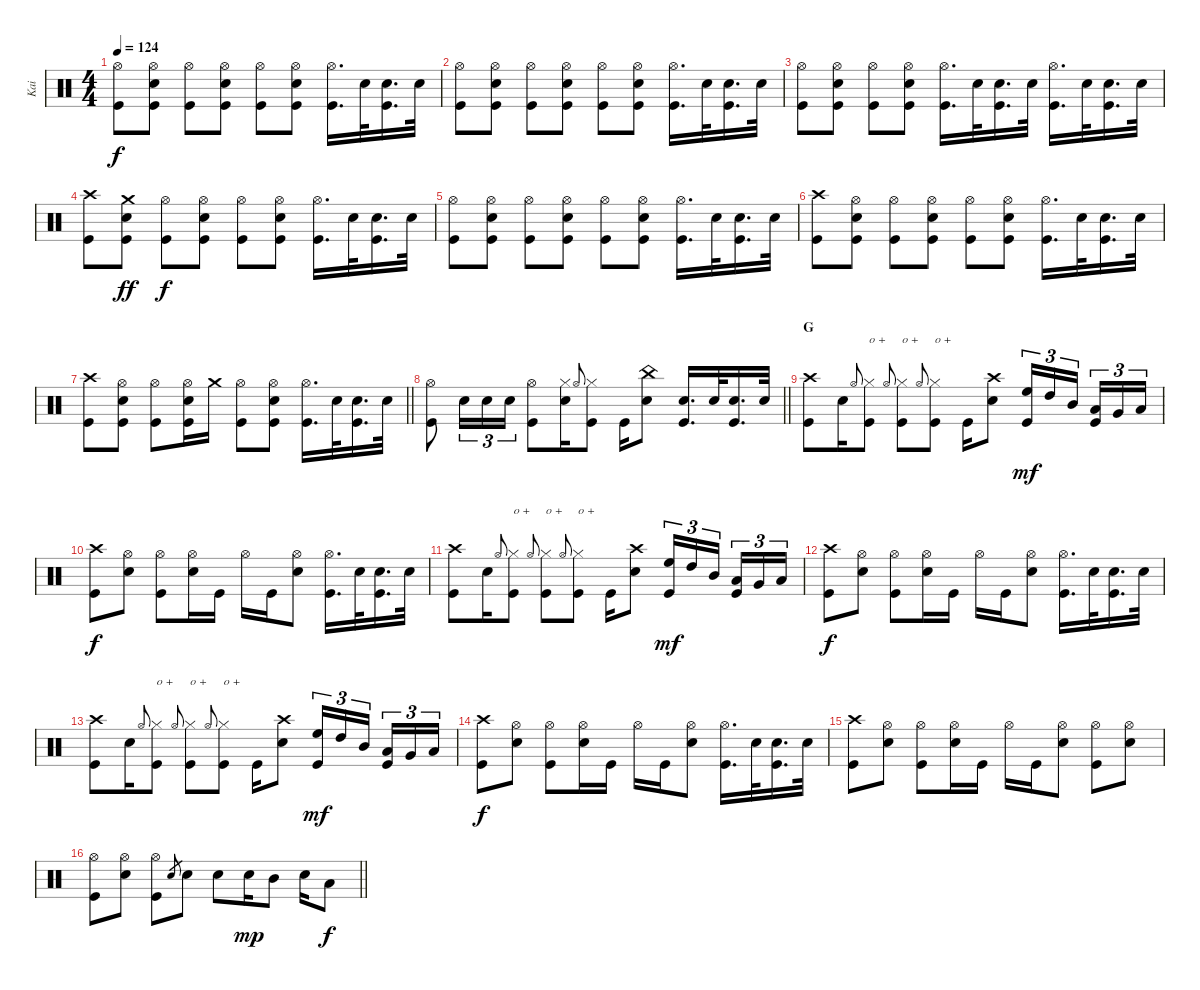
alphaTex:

\track ("Kai" "Kai") {instrument percussion}
\staff {score}
\articulation defaults
\ts (4 4)
\tempo 124
\clef neutral
\ks c
("Hi-Hat (open)" "Kick (hit)").8{dy f} ("Hi-Hat (open)" "Snare (hit) 2" "Kick (hit)").8 ("Hi-Hat (open)" "Kick (hit)").8 ("Hi-Hat (open)" "Snare (hit) 2" "Kick (hit)").8 ("Kick (hit)" "Hi-Hat (open)").8 ("Snare (hit) 2" "Hi-Hat (open)" "Kick (hit)").8 ("Kick (hit)" "Hi-Hat (open)").16{d} "Snare (hit) 2".32 ("Snare (hit) 2" "Kick (hit)").16{d} "Snare (hit) 2".32 |
("Hi-Hat (open)" "Kick (hit)").8 ("Hi-Hat (open)" "Snare (hit) 2" "Kick (hit)").8 ("Hi-Hat (open)" "Kick (hit)").8 ("Hi-Hat (open)" "Snare (hit) 2" "Kick (hit)").8 ("Kick (hit)" "Hi-Hat (open)").8 ("Snare (hit) 2" "Hi-Hat (open)" "Kick (hit)").8 ("Kick (hit)" "Hi-Hat (open)").16{d} "Snare (hit) 2".32 ("Snare (hit) 2" "Kick (hit)").16{d} "Snare (hit) 2".32 |
("Hi-Hat (open)" "Kick (hit)").8 ("Hi-Hat (open)" "Snare (hit) 2" "Kick (hit)").8 ("Hi-Hat (open)" "Kick (hit)").8 ("Hi-Hat (open)" "Snare (hit) 2" "Kick (hit)").8 ("Kick (hit)" "Hi-Hat (open)").16{d} "Snare (hit) 2".32 ("Snare (hit) 2" "Kick (hit)").16{d} "Snare (hit) 2".32 ("Kick (hit)" "Hi-Hat (open)").16{d} "Snare (hit) 2".32 ("Snare (hit) 2" "Kick (hit)").16{d} "Snare (hit) 2".32 |
("Kick (hit)" "Crash high (hit)").8 ("Crash medium (hit)" "Snare (hit) 2" "Kick (hit)").8{dy ff} ("Hi-Hat (open)" "Kick (hit)").8{dy f} ("Hi-Hat (open)" "Snare (hit) 2" "Kick (hit)").8 ("Kick (hit)" "Hi-Hat (open)").8 ("Snare (hit) 2" "Hi-Hat (open)" "Kick (hit)").8 ("Kick (hit)" "Hi-Hat (open)").16{d} "Snare (hit) 2".32 ("Snare (hit) 2" "Kick (hit)").16{d} "Snare (hit) 2".32 |
("Hi-Hat (open)" "Kick (hit)").8 ("Hi-Hat (open)" "Snare (hit) 2" "Kick (hit)").8 ("Hi-Hat (open)" "Kick (hit)").8 ("Hi-Hat (open)" "Snare (hit) 2" "Kick (hit)").8 ("Kick (hit)" "Hi-Hat (open)").8 ("Snare (hit) 2" "Hi-Hat (open)" "Kick (hit)").8 ("Kick (hit)" "Hi-Hat (open)").16{d} "Snare (hit) 2".32 ("Snare (hit) 2" "Kick (hit)").16{d} "Snare (hit) 2".32 |
("Crash high (hit)" "Kick (hit)").8 ("Hi-Hat (open)" "Snare (hit) 2" "Kick (hit)").8 ("Hi-Hat (open)" "Kick (hit)").8 ("Hi-Hat (open)" "Snare (hit) 2" "Kick (hit)").8 ("Kick (hit)" "Hi-Hat (open)").8 ("Snare (hit) 2" "Hi-Hat (open)" "Kick (hit)").8 ("Kick (hit)" "Hi-Hat (open)").16{d} "Snare (hit) 2".32 ("Snare (hit) 2" "Kick (hit)").16{d} "Snare (hit) 2".32 |
\barLineRight lightlight
("Crash high (hit)" "Kick (hit)").8 ("Hi-Hat (open)" "Snare (hit) 2" "Kick (hit)").8 ("Hi-Hat (open)" "Kick (hit)").8 ("Hi-Hat (open)" "Snare (hit) 2" "Kick (hit)").16 "Crash medium (hit)".16 ("Kick (hit)" "Hi-Hat (open)").8 ("Snare (hit) 2" "Hi-Hat (open)" "Kick (hit)").8 ("Kick (hit)" "Hi-Hat (open)").16{d} "Snare (hit) 2".32 ("Snare (hit) 2" "Kick (hit)").16{d} "Snare (hit) 2".32 |
\barLineRight lightlight
("Kick (hit)" "Hi-Hat (open)").8 "Snare (hit) 2".16{tu (3 2)} "Snare (hit) 2".16{tu (3 2)} "Snare (hit) 2".16{tu (3 2)} ("Kick (hit)" "Hi-Hat (open)").8 ("Snare (hit) 2" "Hi-Hat (closed)").16 "Hi-Hat (open)".8{gr onbeat} ("Kick (hit)" "Hi-Hat (closed)").8 "Kick (hit)".16 ("China (hit)" "Snare (hit) 2").8 ("Kick (hit)" "Snare (hit) 2").16{d} "Snare (hit) 2".32 ("Snare (hit) 2" "Kick (hit)").16{d} "Snare (hit) 2".32 |
\section ("" "G")
("Kick (hit)" "Crash high (hit)").8 "Snare (hit) 2".16 "Hi-Hat (open)".8{gr onbeat} ("Hi-Hat (closed)" "Kick (hit)").8{txt "o +"} "Hi-Hat (open)".8{gr onbeat} ("Hi-Hat (closed)" "Kick (hit)").8{txt "o +"} "Hi-Hat (open)".8{gr onbeat} ("Hi-Hat (closed)" "Kick (hit)").8{txt "o +"} "Kick (hit)".16 ("Snare (hit) 2" "Crash high (hit)").8 ("High Floor Tom (hit)" "Kick (hit)").16{tu (3 2) dy mf} "High Tom (hit)".16{tu (3 2)} "Mid Tom (hit)".16{tu (3 2) beam splitsecondary} ("Low Tom (hit)" "Kick (hit)").16{tu (3 2)} "Very Low Tom (hit)".16{tu (3 2)} "Low Floor Tom (hit)".16{tu (3 2)} |
("Kick (hit)" "Crash high (hit)").8{dy f} ("Snare (hit) 2" "Hi-Hat (open)").8 ("Kick (hit)" "Hi-Hat (open)").8 ("Snare (hit) 2" "Hi-Hat (open)").16 "Kick (hit)".16 "Hi-Hat (open)".16 "Kick (hit)".16 ("Snare (hit) 2" "Hi-Hat (open)").8 ("Kick (hit)" "Hi-Hat (open)").16{d} "Snare (hit) 2".32 ("Snare (hit) 2" "Kick (hit)").16{d} "Snare (hit) 2".32 |
("Kick (hit)" "Crash high (hit)").8 "Snare (hit) 2".16 "Hi-Hat (open)".8{gr onbeat} ("Hi-Hat (closed)" "Kick (hit)").8{txt "o +"} "Hi-Hat (open)".8{gr onbeat} ("Hi-Hat (closed)" "Kick (hit)").8{txt "o +"} "Hi-Hat (open)".8{gr onbeat} ("Hi-Hat (closed)" "Kick (hit)").8{txt "o +"} "Kick (hit)".16 ("Snare (hit) 2" "Crash high (hit)").8 ("High Floor Tom (hit)" "Kick (hit)").16{tu (3 2) dy mf} "High Tom (hit)".16{tu (3 2)} "Mid Tom (hit)".16{tu (3 2) beam splitsecondary} ("Low Tom (hit)" "Kick (hit)").16{tu (3 2)} "Very Low Tom (hit)".16{tu (3 2)} "Low Floor Tom (hit)".16{tu (3 2)} |
("Kick (hit)" "Crash high (hit)").8{dy f} ("Snare (hit) 2" "Hi-Hat (open)").8 ("Kick (hit)" "Hi-Hat (open)").8 ("Snare (hit) 2" "Hi-Hat (open)").16 "Kick (hit)".16 "Hi-Hat (open)".16 "Kick (hit)".16 ("Snare (hit) 2" "Hi-Hat (open)").8 ("Kick (hit)" "Hi-Hat (open)").16{d} "Snare (hit) 2".32 ("Snare (hit) 2" "Kick (hit)").16{d} "Snare (hit) 2".32 |
("Kick (hit)" "Crash high (hit)").8 "Snare (hit) 2".16 "Hi-Hat (open)".8{gr onbeat} ("Hi-Hat (closed)" "Kick (hit)").8{txt "o +"} "Hi-Hat (open)".8{gr onbeat} ("Hi-Hat (closed)" "Kick (hit)").8{txt "o +"} "Hi-Hat (open)".8{gr onbeat} ("Hi-Hat (closed)" "Kick (hit)").8{txt "o +"} "Kick (hit)".16 ("Snare (hit) 2" "Crash high (hit)").8 ("High Floor Tom (hit)" "Kick (hit)").16{tu (3 2) dy mf} "High Tom (hit)".16{tu (3 2)} "Mid Tom (hit)".16{tu (3 2) beam splitsecondary} ("Low Tom (hit)" "Kick (hit)").16{tu (3 2)} "Very Low Tom (hit)".16{tu (3 2)} "Low Floor Tom (hit)".16{tu (3 2)} |
("Kick (hit)" "Crash high (hit)").8{dy f} ("Snare (hit) 2" "Hi-Hat (open)").8 ("Kick (hit)" "Hi-Hat (open)").8 ("Snare (hit) 2" "Hi-Hat (open)").16 "Kick (hit)".16 "Hi-Hat (open)".16 "Kick (hit)".16 ("Snare (hit) 2" "Hi-Hat (open)").8 ("Kick (hit)" "Hi-Hat (open)").16{d} "Snare (hit) 2".32 ("Snare (hit) 2" "Kick (hit)").16{d} "Snare (hit) 2".32 |
("Kick (hit)" "Crash high (hit)").8 ("Snare (hit) 2" "Hi-Hat (open)").8 ("Kick (hit)" "Hi-Hat (open)").8 ("Snare (hit) 2" "Hi-Hat (open)").16 "Kick (hit)".16 "Hi-Hat (open)".16 "Kick (hit)".16 ("Snare (hit) 2" "Hi-Hat (open)").8 ("Kick (hit)" "Hi-Hat (open)").8 ("Snare (hit) 2" "Hi-Hat (open)").8 |
\barLineRight lightlight
("Kick (hit)" "Hi-Hat (open)").8 ("Snare (hit) 2" "Hi-Hat (open)").8 ("Kick (hit)" "Hi-Hat (open)").8 "Snare (hit) 2".8{gr} "Snare (hit) 2".8 "Snare (hit) 2".8 "Snare (hit) 2".16{dy mp} "Mid Tom (hit)".8 "Snare (hit) 2".16 "Low Tom (hit)".8{dy f}
